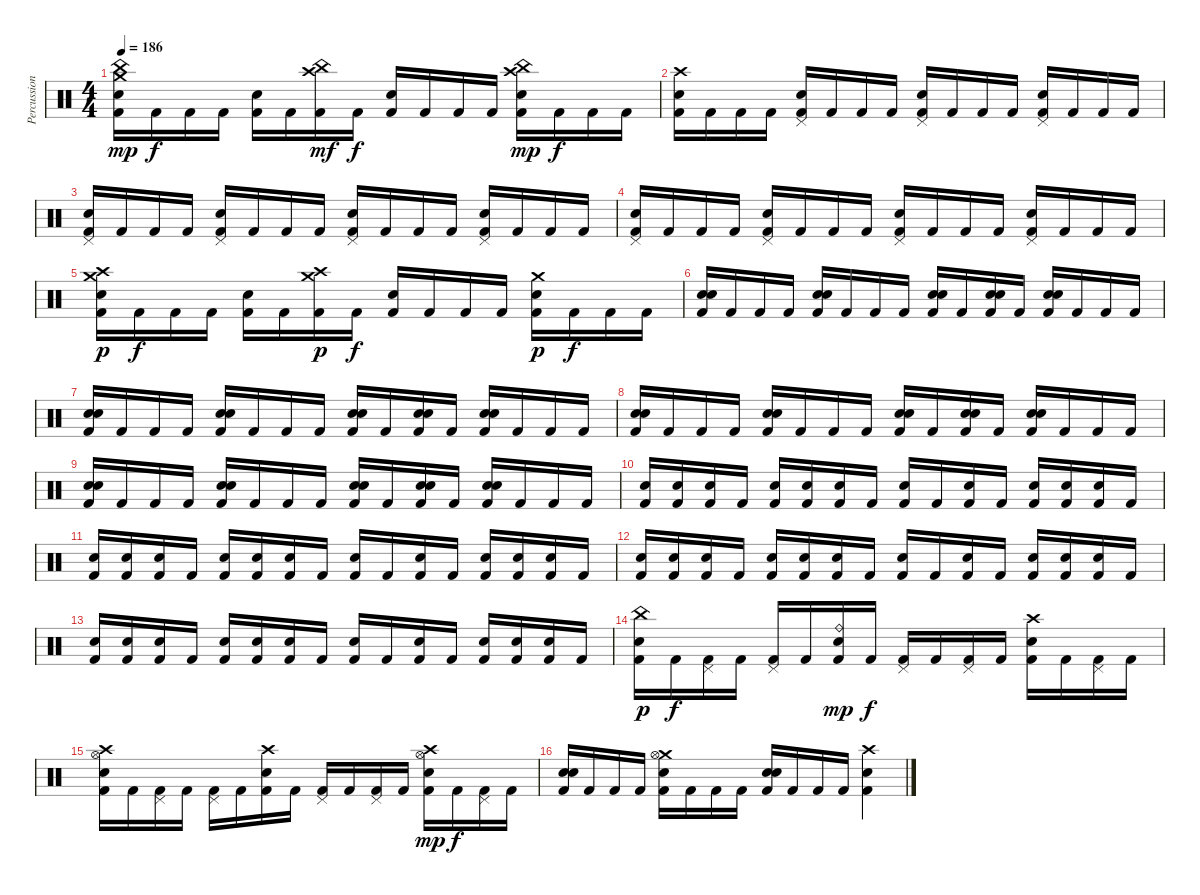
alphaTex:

\track ("Percussion" "Percussion") {instrument percussion}
\staff {score}
\articulation defaults
\ts (4 4)
\tempo 186
\clef neutral
\ks c
("Crash medium (hit)" "China (hit)" "Electric Snare (hit)" "Kick (hit) 2").16{dy mp} "Kick (hit) 2".16{dy f} "Kick (hit) 2".16 "Kick (hit) 2".16 ("Electric Snare (hit)" "Kick (hit) 2").16 "Kick (hit) 2".16 ("Crash high (hit)" "China (hit)" "Kick (hit) 2").16{dy mf} "Kick (hit) 2".16{dy f} ("Electric Snare (hit)" "Kick (hit) 2").16 "Kick (hit) 2".16 "Kick (hit) 2".16 "Kick (hit) 2".16 ("Crash high (hit)" "China (hit)" "Electric Snare (hit)" "Kick (hit) 2").16{dy mp} "Kick (hit) 2".16{dy f} "Kick (hit) 2".16 "Kick (hit) 2".16 |
("Crash high (hit)" "Electric Snare (hit)" "Kick (hit) 2").16 "Kick (hit) 2".16 "Kick (hit) 2".16 "Kick (hit) 2".16 ("Pedal Hi-Hat (hit)" "Electric Snare (hit)" "Kick (hit) 2").16 "Kick (hit) 2".16 "Kick (hit) 2".16 "Kick (hit) 2".16 ("Pedal Hi-Hat (hit)" "Electric Snare (hit)" "Kick (hit) 2").16 "Kick (hit) 2".16 "Kick (hit) 2".16 "Kick (hit) 2".16 ("Pedal Hi-Hat (hit)" "Electric Snare (hit)" "Kick (hit) 2").16 "Kick (hit) 2".16 "Kick (hit) 2".16 "Kick (hit) 2".16 |
("Pedal Hi-Hat (hit)" "Electric Snare (hit)" "Kick (hit) 2").16 "Kick (hit) 2".16 "Kick (hit) 2".16 "Kick (hit) 2".16 ("Pedal Hi-Hat (hit)" "Electric Snare (hit)" "Kick (hit) 2").16 "Kick (hit) 2".16 "Kick (hit) 2".16 "Kick (hit) 2".16 ("Pedal Hi-Hat (hit)" "Electric Snare (hit)" "Kick (hit) 2").16 "Kick (hit) 2".16 "Kick (hit) 2".16 "Kick (hit) 2".16 ("Pedal Hi-Hat (hit)" "Electric Snare (hit)" "Kick (hit) 2").16 "Kick (hit) 2".16 "Kick (hit) 2".16 "Kick (hit) 2".16 |
("Pedal Hi-Hat (hit)" "Electric Snare (hit)" "Kick (hit) 2").16 "Kick (hit) 2".16 "Kick (hit) 2".16 "Kick (hit) 2".16 ("Pedal Hi-Hat (hit)" "Electric Snare (hit)" "Kick (hit) 2").16 "Kick (hit) 2".16 "Kick (hit) 2".16 "Kick (hit) 2".16 ("Pedal Hi-Hat (hit)" "Electric Snare (hit)" "Kick (hit) 2").16 "Kick (hit) 2".16 "Kick (hit) 2".16 "Kick (hit) 2".16 ("Pedal Hi-Hat (hit)" "Electric Snare (hit)" "Kick (hit) 2").16 "Kick (hit) 2".16 "Kick (hit) 2".16 "Kick (hit) 2".16 |
("Crash medium (hit)" "Crash high (hit)" "Electric Snare (hit)" "Kick (hit) 2").16{dy p} "Kick (hit) 2".16{dy f} "Kick (hit) 2".16 "Kick (hit) 2".16 ("Electric Snare (hit)" "Kick (hit) 2").16 "Kick (hit) 2".16 ("Crash medium (hit)" "Crash high (hit)" "Kick (hit) 2").16{dy p} "Kick (hit) 2".16{dy f} ("Electric Snare (hit)" "Kick (hit) 2").16 "Kick (hit) 2".16 "Kick (hit) 2".16 "Kick (hit) 2".16 ("Crash medium (hit)" "Electric Snare (hit)" "Kick (hit) 2").16{dy p} "Kick (hit) 2".16{dy f} "Kick (hit) 2".16 "Kick (hit) 2".16 |
("Electric Snare (hit)" "Electric Snare (hit)" "Kick (hit) 2").16 "Kick (hit) 2".16 "Kick (hit) 2".16 "Kick (hit) 2".16 ("Electric Snare (hit)" "Electric Snare (hit)" "Kick (hit) 2").16 "Kick (hit) 2".16 "Kick (hit) 2".16 "Kick (hit) 2".16 ("Electric Snare (hit)" "Electric Snare (hit)" "Kick (hit) 2").16 "Kick (hit) 2".16 ("Electric Snare (hit)" "Electric Snare (hit)" "Kick (hit) 2").16 "Kick (hit) 2".16 ("Electric Snare (hit)" "Electric Snare (hit)" "Kick (hit) 2").16 "Kick (hit) 2".16 "Kick (hit) 2".16 "Kick (hit) 2".16 |
("Electric Snare (hit)" "Electric Snare (hit)" "Kick (hit) 2").16 "Kick (hit) 2".16 "Kick (hit) 2".16 "Kick (hit) 2".16 ("Electric Snare (hit)" "Electric Snare (hit)" "Kick (hit) 2").16 "Kick (hit) 2".16 "Kick (hit) 2".16 "Kick (hit) 2".16 ("Electric Snare (hit)" "Electric Snare (hit)" "Kick (hit) 2").16 "Kick (hit) 2".16 ("Electric Snare (hit)" "Electric Snare (hit)" "Kick (hit) 2").16 "Kick (hit) 2".16 ("Electric Snare (hit)" "Electric Snare (hit)" "Kick (hit) 2").16 "Kick (hit) 2".16 "Kick (hit) 2".16 "Kick (hit) 2".16 |
("Electric Snare (hit)" "Electric Snare (hit)" "Kick (hit) 2").16 "Kick (hit) 2".16 "Kick (hit) 2".16 "Kick (hit) 2".16 ("Electric Snare (hit)" "Electric Snare (hit)" "Kick (hit) 2").16 "Kick (hit) 2".16 "Kick (hit) 2".16 "Kick (hit) 2".16 ("Electric Snare (hit)" "Electric Snare (hit)" "Kick (hit) 2").16 "Kick (hit) 2".16 ("Electric Snare (hit)" "Electric Snare (hit)" "Kick (hit) 2").16 "Kick (hit) 2".16 ("Electric Snare (hit)" "Electric Snare (hit)" "Kick (hit) 2").16 "Kick (hit) 2".16 "Kick (hit) 2".16 "Kick (hit) 2".16 |
("Electric Snare (hit)" "Electric Snare (hit)" "Kick (hit) 2").16 "Kick (hit) 2".16 "Kick (hit) 2".16 "Kick (hit) 2".16 ("Electric Snare (hit)" "Electric Snare (hit)" "Kick (hit) 2").16 "Kick (hit) 2".16 "Kick (hit) 2".16 "Kick (hit) 2".16 ("Electric Snare (hit)" "Electric Snare (hit)" "Kick (hit) 2").16 "Kick (hit) 2".16 ("Electric Snare (hit)" "Electric Snare (hit)" "Kick (hit) 2").16 "Kick (hit) 2".16 ("Electric Snare (hit)" "Electric Snare (hit)" "Kick (hit) 2").16 "Kick (hit) 2".16 "Kick (hit) 2".16 "Kick (hit) 2".16 |
("Electric Snare (hit)" "Kick (hit) 2").16 ("Electric Snare (hit)" "Kick (hit) 2").16 ("Electric Snare (hit)" "Kick (hit) 2").16 "Kick (hit) 2".16 ("Electric Snare (hit)" "Kick (hit) 2").16 ("Electric Snare (hit)" "Kick (hit) 2").16 ("Electric Snare (hit)" "Kick (hit) 2").16 "Kick (hit) 2".16 ("Electric Snare (hit)" "Kick (hit) 2").16 "Kick (hit) 2".16 ("Electric Snare (hit)" "Kick (hit) 2").16 "Kick (hit) 2".16 ("Electric Snare (hit)" "Kick (hit) 2").16 ("Electric Snare (hit)" "Kick (hit) 2").16 ("Electric Snare (hit)" "Kick (hit) 2").16 "Kick (hit) 2".16 |
("Electric Snare (hit)" "Kick (hit) 2").16 ("Electric Snare (hit)" "Kick (hit) 2").16 ("Electric Snare (hit)" "Kick (hit) 2").16 "Kick (hit) 2".16 ("Electric Snare (hit)" "Kick (hit) 2").16 ("Electric Snare (hit)" "Kick (hit) 2").16 ("Electric Snare (hit)" "Kick (hit) 2").16 "Kick (hit) 2".16 ("Electric Snare (hit)" "Kick (hit) 2").16 "Kick (hit) 2".16 ("Electric Snare (hit)" "Kick (hit) 2").16 "Kick (hit) 2".16 ("Electric Snare (hit)" "Kick (hit) 2").16 ("Electric Snare (hit)" "Kick (hit) 2").16 ("Electric Snare (hit)" "Kick (hit) 2").16 "Kick (hit) 2".16 |
("Electric Snare (hit)" "Kick (hit) 2").16 ("Electric Snare (hit)" "Kick (hit) 2").16 ("Electric Snare (hit)" "Kick (hit) 2").16 "Kick (hit) 2".16 ("Electric Snare (hit)" "Kick (hit) 2").16 ("Electric Snare (hit)" "Kick (hit) 2").16 ("Electric Snare (hit)" "Kick (hit) 2").16 "Kick (hit) 2".16 ("Electric Snare (hit)" "Kick (hit) 2").16 "Kick (hit) 2".16 ("Electric Snare (hit)" "Kick (hit) 2").16 "Kick (hit) 2".16 ("Electric Snare (hit)" "Kick (hit) 2").16 ("Electric Snare (hit)" "Kick (hit) 2").16 ("Electric Snare (hit)" "Kick (hit) 2").16 "Kick (hit) 2".16 |
("Electric Snare (hit)" "Kick (hit) 2").16 ("Electric Snare (hit)" "Kick (hit) 2").16 ("Electric Snare (hit)" "Kick (hit) 2").16 "Kick (hit) 2".16 ("Electric Snare (hit)" "Kick (hit) 2").16 ("Electric Snare (hit)" "Kick (hit) 2").16 ("Electric Snare (hit)" "Kick (hit) 2").16 "Kick (hit) 2".16 ("Electric Snare (hit)" "Kick (hit) 2").16 "Kick (hit) 2".16 ("Electric Snare (hit)" "Kick (hit) 2").16 "Kick (hit) 2".16 ("Electric Snare (hit)" "Kick (hit) 2").16 ("Electric Snare (hit)" "Kick (hit) 2").16 ("Electric Snare (hit)" "Kick (hit) 2").16 "Kick (hit) 2".16 |
("China (hit)" "Electric Snare (hit)" "Kick (hit) 2").16{dy p} "Kick (hit) 2".16{dy f} ("Pedal Hi-Hat (hit)" "Kick (hit) 2").16 "Kick (hit) 2".16 ("Pedal Hi-Hat (hit)" "Kick (hit) 2").16 "Kick (hit) 2".16 ("Ride (bell)" "Electric Snare (hit)" "Kick (hit) 2").16{dy mp} "Kick (hit) 2".16{dy f} ("Pedal Hi-Hat (hit)" "Kick (hit) 2").16 "Kick (hit) 2".16 ("Pedal Hi-Hat (hit)" "Kick (hit) 2").16 "Kick (hit) 2".16 ("Crash high (hit)" "Electric Snare (hit)" "Kick (hit) 2").16 "Kick (hit) 2".16 ("Pedal Hi-Hat (hit)" "Kick (hit) 2").16 "Kick (hit) 2".16 |
("Hi-Hat (open)" "Crash high (hit)" "Electric Snare (hit)" "Kick (hit) 2").16 "Kick (hit) 2".16 ("Pedal Hi-Hat (hit)" "Kick (hit) 2").16 "Kick (hit) 2".16 ("Pedal Hi-Hat (hit)" "Kick (hit) 2").16 "Kick (hit) 2".16 ("Crash high (hit)" "Electric Snare (hit)" "Kick (hit) 2").16 "Kick (hit) 2".16 ("Pedal Hi-Hat (hit)" "Kick (hit) 2").16 "Kick (hit) 2".16 ("Pedal Hi-Hat (hit)" "Kick (hit) 2").16 "Kick (hit) 2".16 ("Crash high (hit)" "Hi-Hat (open)" "Electric Snare (hit)" "Kick (hit) 2").16{dy mp} "Kick (hit) 2".16{dy f} ("Pedal Hi-Hat (hit)" "Kick (hit) 2").16 "Kick (hit) 2".16 |
("Electric Snare (hit)" "Electric Snare (hit)" "Kick (hit) 2").16 "Kick (hit) 2".16 "Kick (hit) 2".16 "Kick (hit) 2".16 ("Crash medium (hit)" "Hi-Hat (open)" "Electric Snare (hit)" "Kick (hit) 2").16 "Kick (hit) 2".16 "Kick (hit) 2".16 "Kick (hit) 2".16 ("Electric Snare (hit)" "Electric Snare (hit)" "Kick (hit) 2").16 "Kick (hit) 2".16 "Kick (hit) 2".16 "Kick (hit) 2".16 ("Crash high (hit)" "Electric Snare (hit)" "Kick (hit) 2").4
